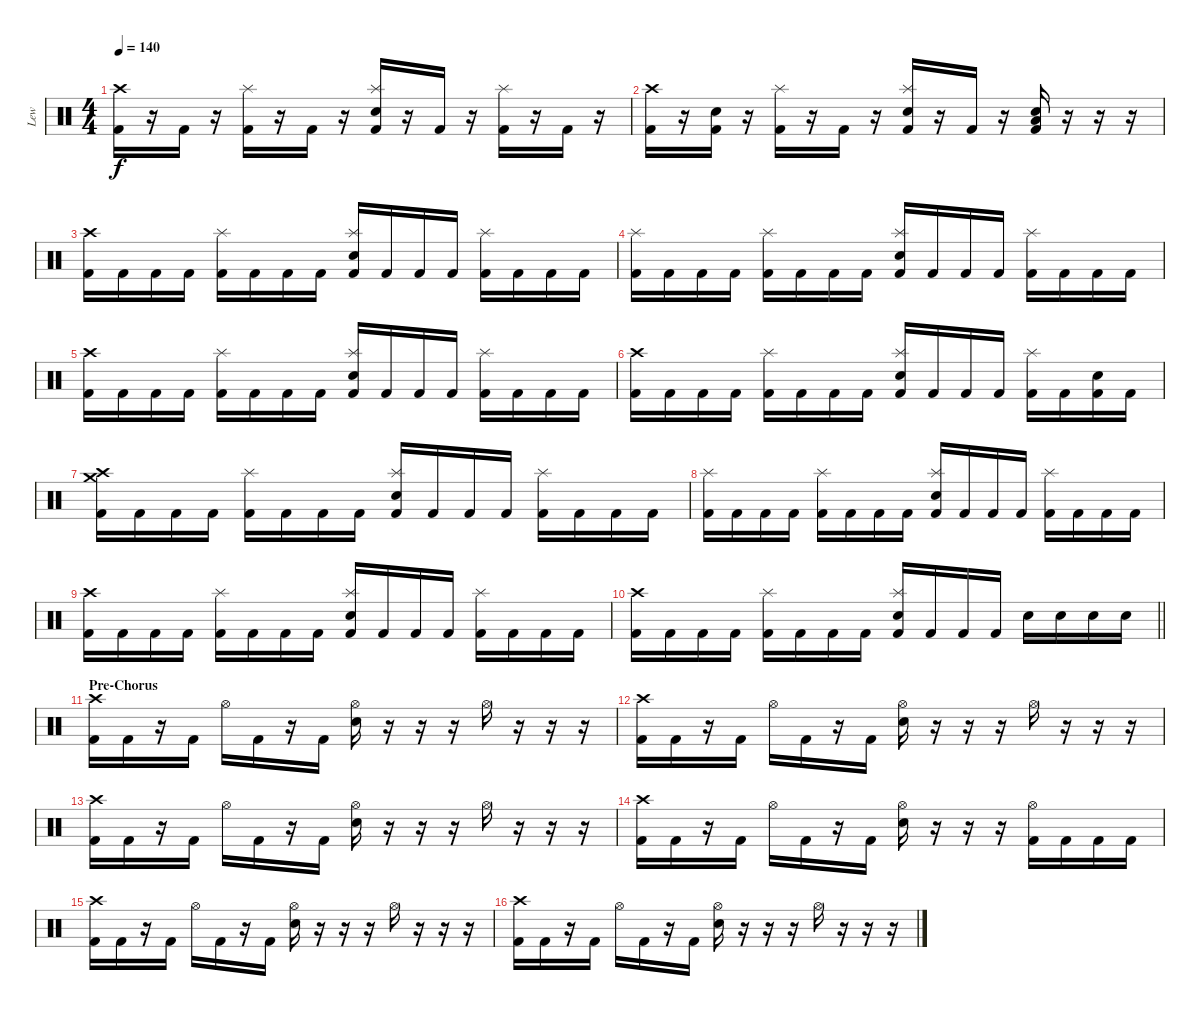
\track ("Lew" "Lew") {instrument percussion}
\staff {score}
\articulation defaults
\ts (4 4)
\tempo 140
\clef neutral
\ks c
("Crash high (hit)" "Kick (hit) 2").16{dy f} r.16 "Kick (hit) 2".16 r.16 ("Splash (hit)" "Kick (hit) 2").16 r.16 "Kick (hit) 2".16 r.16 ("Splash (hit)" "Electric Snare (hit)" "Kick (hit) 2").16 r.16 "Kick (hit) 2".16 r.16 ("Splash (hit)" "Kick (hit) 2").16 r.16 "Kick (hit) 2".16 r.16 |
("Crash high (hit)" "Kick (hit) 2").16 r.16 ("Electric Snare (hit)" "Kick (hit) 2").16 r.16 ("Splash (hit)" "Kick (hit) 2").16 r.16 "Kick (hit) 2".16 r.16 ("Splash (hit)" "Electric Snare (hit)" "Kick (hit) 2").16 r.16 "Kick (hit) 2".16 r.16 ("Low Tom (hit)" "Electric Snare (hit)" "Kick (hit) 2").16 r.16 r.16 r.16 |
("Crash high (hit)" "Kick (hit) 2").16 "Kick (hit) 2".16 "Kick (hit) 2".16 "Kick (hit) 2".16 ("Splash (hit)" "Kick (hit) 2").16 "Kick (hit) 2".16 "Kick (hit) 2".16 "Kick (hit) 2".16 ("Splash (hit)" "Electric Snare (hit)" "Kick (hit) 2").16 "Kick (hit) 2".16 "Kick (hit) 2".16 "Kick (hit) 2".16 ("Splash (hit)" "Kick (hit) 2").16 "Kick (hit) 2".16 "Kick (hit) 2".16 "Kick (hit) 2".16 |
("Splash (hit)" "Kick (hit) 2").16 "Kick (hit) 2".16 "Kick (hit) 2".16 "Kick (hit) 2".16 ("Splash (hit)" "Kick (hit) 2").16 "Kick (hit) 2".16 "Kick (hit) 2".16 "Kick (hit) 2".16 ("Splash (hit)" "Electric Snare (hit)" "Kick (hit) 2").16 "Kick (hit) 2".16 "Kick (hit) 2".16 "Kick (hit) 2".16 ("Splash (hit)" "Kick (hit) 2").16 "Kick (hit) 2".16 "Kick (hit) 2".16 "Kick (hit) 2".16 |
("Crash high (hit)" "Kick (hit) 2").16 "Kick (hit) 2".16 "Kick (hit) 2".16 "Kick (hit) 2".16 ("Splash (hit)" "Kick (hit) 2").16 "Kick (hit) 2".16 "Kick (hit) 2".16 "Kick (hit) 2".16 ("Splash (hit)" "Electric Snare (hit)" "Kick (hit) 2").16 "Kick (hit) 2".16 "Kick (hit) 2".16 "Kick (hit) 2".16 ("Splash (hit)" "Kick (hit) 2").16 "Kick (hit) 2".16 "Kick (hit) 2".16 "Kick (hit) 2".16 |
("Crash high (hit)" "Kick (hit) 2").16 "Kick (hit) 2".16 "Kick (hit) 2".16 "Kick (hit) 2".16 ("Splash (hit)" "Kick (hit) 2").16 "Kick (hit) 2".16 "Kick (hit) 2".16 "Kick (hit) 2".16 ("Splash (hit)" "Electric Snare (hit)" "Kick (hit) 2").16 "Kick (hit) 2".16 "Kick (hit) 2".16 "Kick (hit) 2".16 ("Splash (hit)" "Kick (hit) 2").16 "Kick (hit) 2".16 ("Electric Snare (hit)" "Kick (hit) 2").16 "Kick (hit) 2".16 |
("Crash high (hit)" "Crash medium (hit)" "Kick (hit) 2").16 "Kick (hit) 2".16 "Kick (hit) 2".16 "Kick (hit) 2".16 ("Splash (hit)" "Kick (hit) 2").16 "Kick (hit) 2".16 "Kick (hit) 2".16 "Kick (hit) 2".16 ("Splash (hit)" "Electric Snare (hit)" "Kick (hit) 2").16 "Kick (hit) 2".16 "Kick (hit) 2".16 "Kick (hit) 2".16 ("Splash (hit)" "Kick (hit) 2").16 "Kick (hit) 2".16 "Kick (hit) 2".16 "Kick (hit) 2".16 |
("Splash (hit)" "Kick (hit) 2").16 "Kick (hit) 2".16 "Kick (hit) 2".16 "Kick (hit) 2".16 ("Splash (hit)" "Kick (hit) 2").16 "Kick (hit) 2".16 "Kick (hit) 2".16 "Kick (hit) 2".16 ("Splash (hit)" "Electric Snare (hit)" "Kick (hit) 2").16 "Kick (hit) 2".16 "Kick (hit) 2".16 "Kick (hit) 2".16 ("Splash (hit)" "Kick (hit) 2").16 "Kick (hit) 2".16 "Kick (hit) 2".16 "Kick (hit) 2".16 |
("Crash high (hit)" "Kick (hit) 2").16 "Kick (hit) 2".16 "Kick (hit) 2".16 "Kick (hit) 2".16 ("Splash (hit)" "Kick (hit) 2").16 "Kick (hit) 2".16 "Kick (hit) 2".16 "Kick (hit) 2".16 ("Splash (hit)" "Electric Snare (hit)" "Kick (hit) 2").16 "Kick (hit) 2".16 "Kick (hit) 2".16 "Kick (hit) 2".16 ("Splash (hit)" "Kick (hit) 2").16 "Kick (hit) 2".16 "Kick (hit) 2".16 "Kick (hit) 2".16 |
\barLineRight lightlight
("Crash high (hit)" "Kick (hit) 2").16 "Kick (hit) 2".16 "Kick (hit) 2".16 "Kick (hit) 2".16 ("Splash (hit)" "Kick (hit) 2").16 "Kick (hit) 2".16 "Kick (hit) 2".16 "Kick (hit) 2".16 ("Splash (hit)" "Electric Snare (hit)" "Kick (hit) 2").16 "Kick (hit) 2".16 "Kick (hit) 2".16 "Kick (hit) 2".16 "Electric Snare (hit)".16 "Electric Snare (hit)".16 "Electric Snare (hit)".16 "Electric Snare (hit)".16 |
\section ("" "Pre-Chorus")
("Crash high (hit)" "Kick (hit) 2").16 "Kick (hit) 2".16 r.16 "Kick (hit) 2".16 "Hi-Hat (open)".16 "Kick (hit) 2".16 r.16 "Kick (hit) 2".16 ("Hi-Hat (open)" "Electric Snare (hit)").16 r.16 r.16 r.16 "Hi-Hat (open)".16 r.16 r.16 r.16 |
("Crash high (hit)" "Kick (hit) 2").16 "Kick (hit) 2".16 r.16 "Kick (hit) 2".16 "Hi-Hat (open)".16 "Kick (hit) 2".16 r.16 "Kick (hit) 2".16 ("Hi-Hat (open)" "Electric Snare (hit)").16 r.16 r.16 r.16 "Hi-Hat (open)".16 r.16 r.16 r.16 |
("Crash high (hit)" "Kick (hit) 2").16 "Kick (hit) 2".16 r.16 "Kick (hit) 2".16 "Hi-Hat (open)".16 "Kick (hit) 2".16 r.16 "Kick (hit) 2".16 ("Hi-Hat (open)" "Electric Snare (hit)").16 r.16 r.16 r.16 "Hi-Hat (open)".16 r.16 r.16 r.16 |
("Crash high (hit)" "Kick (hit) 2").16 "Kick (hit) 2".16 r.16 "Kick (hit) 2".16 "Hi-Hat (open)".16 "Kick (hit) 2".16 r.16 "Kick (hit) 2".16 ("Hi-Hat (open)" "Electric Snare (hit)").16 r.16 r.16 r.16 ("Hi-Hat (open)" "Kick (hit) 2").16 "Kick (hit) 2".16 "Kick (hit) 2".16 "Kick (hit) 2".16 |
("Crash high (hit)" "Kick (hit) 2").16 "Kick (hit) 2".16 r.16 "Kick (hit) 2".16 "Hi-Hat (open)".16 "Kick (hit) 2".16 r.16 "Kick (hit) 2".16 ("Hi-Hat (open)" "Electric Snare (hit)").16 r.16 r.16 r.16 "Hi-Hat (open)".16 r.16 r.16 r.16 |
("Crash high (hit)" "Kick (hit) 2").16 "Kick (hit) 2".16 r.16 "Kick (hit) 2".16 "Hi-Hat (open)".16 "Kick (hit) 2".16 r.16 "Kick (hit) 2".16 ("Hi-Hat (open)" "Electric Snare (hit)").16 r.16 r.16 r.16 "Hi-Hat (open)".16 r.16 r.16 r.16
